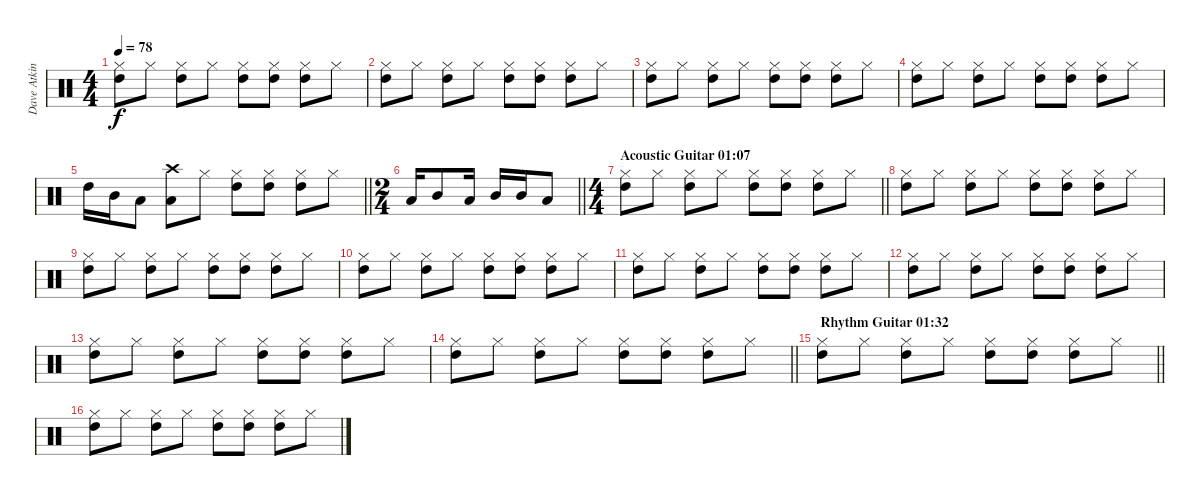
\track ("Dave Atkins" "Dave Atkin") {instrument percussion}
\staff {score}
\articulation defaults
\ts (4 4)
\tempo 78
\clef neutral
\ks c
("Hi-Hat (closed)" "High Tom (hit)").8{dy f} "Hi-Hat (closed)".8 ("Hi-Hat (closed)" "High Tom (hit)").8 "Hi-Hat (closed)".8 ("Hi-Hat (closed)" "High Tom (hit)").8 ("Hi-Hat (closed)" "High Tom (hit)").8 ("Hi-Hat (closed)" "High Tom (hit)").8 "Hi-Hat (closed)".8 |
("Hi-Hat (closed)" "High Tom (hit)").8 "Hi-Hat (closed)".8 ("Hi-Hat (closed)" "High Tom (hit)").8 "Hi-Hat (closed)".8 ("Hi-Hat (closed)" "High Tom (hit)").8 ("Hi-Hat (closed)" "High Tom (hit)").8 ("Hi-Hat (closed)" "High Tom (hit)").8 "Hi-Hat (closed)".8 |
("Hi-Hat (closed)" "High Tom (hit)").8 "Hi-Hat (closed)".8 ("Hi-Hat (closed)" "High Tom (hit)").8 "Hi-Hat (closed)".8 ("Hi-Hat (closed)" "High Tom (hit)").8 ("Hi-Hat (closed)" "High Tom (hit)").8 ("Hi-Hat (closed)" "High Tom (hit)").8 "Hi-Hat (closed)".8 |
("Hi-Hat (closed)" "High Tom (hit)").8 "Hi-Hat (closed)".8 ("Hi-Hat (closed)" "High Tom (hit)").8 "Hi-Hat (closed)".8 ("Hi-Hat (closed)" "High Tom (hit)").8 ("Hi-Hat (closed)" "High Tom (hit)").8 ("Hi-Hat (closed)" "High Tom (hit)").8 "Hi-Hat (closed)".8 |
\barLineRight lightlight "High Tom (hit)".16 "Mid Tom (hit)".16 "Low Tom (hit)".8
("Low Floor Tom (hit)" "Crash high (hit)").8 "Hi-Hat (closed)".8 ("Hi-Hat (closed)" "High Tom (hit)").8 ("Hi-Hat (closed)" "High Tom (hit)").8 ("Hi-Hat (closed)" "High Tom (hit)").8 "Hi-Hat (closed)".8 |
\ts (2 4)
\barLineRight lightlight "Low Tom (hit)".16 "Mid Tom (hit)".8 "Low Tom (hit)".16 "Mid Tom (hit)".16 "Mid Tom (hit)".16 "Low Tom (hit)".8
|
\ts (4 4)
\section ("" "Acoustic Guitar 01:07")
\barLineRight lightlight
("Hi-Hat (closed)" "High Tom (hit)").8 "Hi-Hat (closed)".8 ("Hi-Hat (closed)" "High Tom (hit)").8 "Hi-Hat (closed)".8 ("Hi-Hat (closed)" "High Tom (hit)").8 ("Hi-Hat (closed)" "High Tom (hit)").8 ("Hi-Hat (closed)" "High Tom (hit)").8 "Hi-Hat (closed)".8 |
\section ("" "")
("Hi-Hat (closed)" "High Tom (hit)").8 "Hi-Hat (closed)".8 ("Hi-Hat (closed)" "High Tom (hit)").8 "Hi-Hat (closed)".8 ("Hi-Hat (closed)" "High Tom (hit)").8 ("Hi-Hat (closed)" "High Tom (hit)").8 ("Hi-Hat (closed)" "High Tom (hit)").8 "Hi-Hat (closed)".8 |
("Hi-Hat (closed)" "High Tom (hit)").8 "Hi-Hat (closed)".8 ("Hi-Hat (closed)" "High Tom (hit)").8 "Hi-Hat (closed)".8 ("Hi-Hat (closed)" "High Tom (hit)").8 ("Hi-Hat (closed)" "High Tom (hit)").8 ("Hi-Hat (closed)" "High Tom (hit)").8 "Hi-Hat (closed)".8 |
("Hi-Hat (closed)" "High Tom (hit)").8 "Hi-Hat (closed)".8 ("Hi-Hat (closed)" "High Tom (hit)").8 "Hi-Hat (closed)".8 ("Hi-Hat (closed)" "High Tom (hit)").8 ("Hi-Hat (closed)" "High Tom (hit)").8 ("Hi-Hat (closed)" "High Tom (hit)").8 "Hi-Hat (closed)".8 |
("Hi-Hat (closed)" "High Tom (hit)").8 "Hi-Hat (closed)".8 ("Hi-Hat (closed)" "High Tom (hit)").8 "Hi-Hat (closed)".8 ("Hi-Hat (closed)" "High Tom (hit)").8 ("Hi-Hat (closed)" "High Tom (hit)").8 ("Hi-Hat (closed)" "High Tom (hit)").8 "Hi-Hat (closed)".8 |
("Hi-Hat (closed)" "High Tom (hit)").8 "Hi-Hat (closed)".8 ("Hi-Hat (closed)" "High Tom (hit)").8 "Hi-Hat (closed)".8 ("Hi-Hat (closed)" "High Tom (hit)").8 ("Hi-Hat (closed)" "High Tom (hit)").8 ("Hi-Hat (closed)" "High Tom (hit)").8 "Hi-Hat (closed)".8 |
("Hi-Hat (closed)" "High Tom (hit)").8 "Hi-Hat (closed)".8 ("Hi-Hat (closed)" "High Tom (hit)").8 "Hi-Hat (closed)".8 ("Hi-Hat (closed)" "High Tom (hit)").8 ("Hi-Hat (closed)" "High Tom (hit)").8 ("Hi-Hat (closed)" "High Tom (hit)").8 "Hi-Hat (closed)".8 |
\barLineRight lightlight
("Hi-Hat (closed)" "High Tom (hit)").8 "Hi-Hat (closed)".8 ("Hi-Hat (closed)" "High Tom (hit)").8 "Hi-Hat (closed)".8 ("Hi-Hat (closed)" "High Tom (hit)").8 ("Hi-Hat (closed)" "High Tom (hit)").8 ("Hi-Hat (closed)" "High Tom (hit)").8 "Hi-Hat (closed)".8 |
\section ("" " Rhythm Guitar 01:32")
\barLineRight lightlight
("Hi-Hat (closed)" "High Tom (hit)").8 "Hi-Hat (closed)".8 ("Hi-Hat (closed)" "High Tom (hit)").8 "Hi-Hat (closed)".8 ("Hi-Hat (closed)" "High Tom (hit)").8 ("Hi-Hat (closed)" "High Tom (hit)").8 ("Hi-Hat (closed)" "High Tom (hit)").8 "Hi-Hat (closed)".8 |
\section ("" "")
("Hi-Hat (closed)" "High Tom (hit)").8 "Hi-Hat (closed)".8 ("Hi-Hat (closed)" "High Tom (hit)").8 "Hi-Hat (closed)".8 ("Hi-Hat (closed)" "High Tom (hit)").8 ("Hi-Hat (closed)" "High Tom (hit)").8 ("Hi-Hat (closed)" "High Tom (hit)").8 "Hi-Hat (closed)".8
